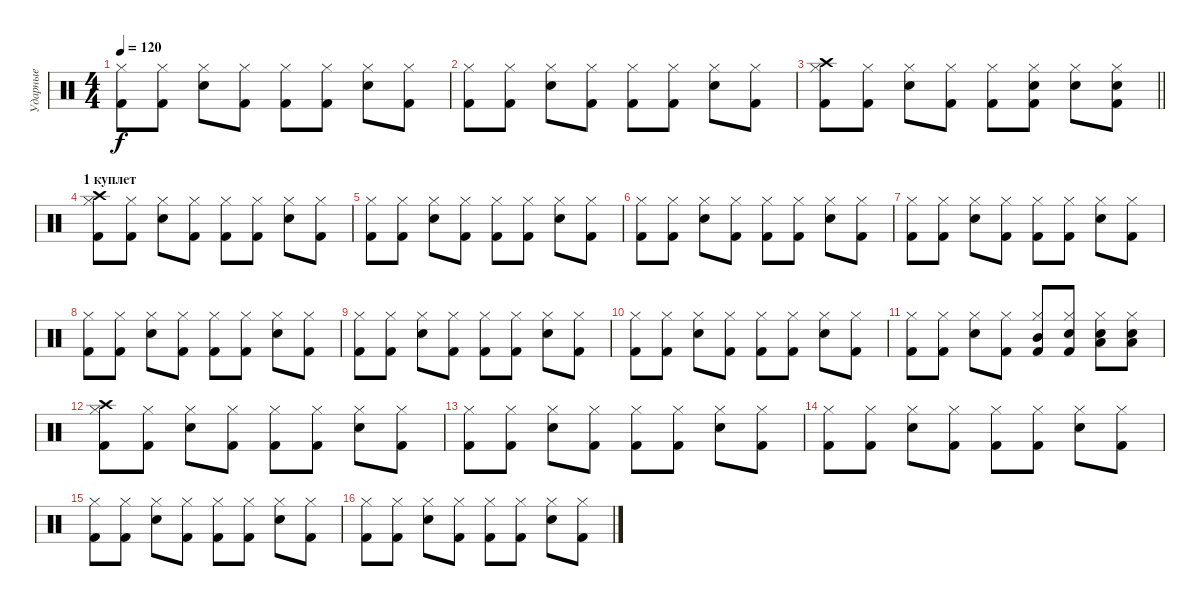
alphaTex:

\track ("Ударные" "Ударные") {instrument percussion}
\staff {score}
\articulation defaults
\ts (4 4)
\tempo 120
\clef neutral
\ks c
("Kick (hit) 2" "Hi-Hat (closed)").8{dy f} ("Kick (hit) 2" "Hi-Hat (closed)").8 ("Snare (hit) 2" "Hi-Hat (closed)").8 ("Kick (hit) 2" "Hi-Hat (closed)").8 ("Kick (hit) 2" "Hi-Hat (closed)").8 ("Kick (hit) 2" "Hi-Hat (closed)").8 ("Snare (hit) 2" "Hi-Hat (closed)").8 ("Kick (hit) 2" "Hi-Hat (closed)").8 |
("Kick (hit) 2" "Hi-Hat (closed)").8 ("Kick (hit) 2" "Hi-Hat (closed)").8 ("Snare (hit) 2" "Hi-Hat (closed)").8 ("Kick (hit) 2" "Hi-Hat (closed)").8 ("Kick (hit) 2" "Hi-Hat (closed)").8 ("Kick (hit) 2" "Hi-Hat (closed)").8 ("Snare (hit) 2" "Hi-Hat (closed)").8 ("Kick (hit) 2" "Hi-Hat (closed)").8 |
\barLineRight lightlight
("Kick (hit) 2" "Hi-Hat (closed)" "Crash high (hit)").8 ("Kick (hit) 2" "Hi-Hat (closed)").8 ("Snare (hit) 2" "Hi-Hat (closed)").8 ("Kick (hit) 2" "Hi-Hat (closed)").8 ("Kick (hit) 2" "Hi-Hat (closed)").8 ("Kick (hit) 2" "Hi-Hat (closed)" "Snare (hit) 2").8 ("Snare (hit) 2" "Hi-Hat (closed)").8 ("Kick (hit) 2" "Hi-Hat (closed)" "Snare (hit) 2").8 |
\section ("" "1 куплет")
("Kick (hit) 2" "Hi-Hat (closed)" "Crash high (hit)").8 ("Kick (hit) 2" "Hi-Hat (closed)").8 ("Snare (hit) 2" "Hi-Hat (closed)").8 ("Kick (hit) 2" "Hi-Hat (closed)").8 ("Kick (hit) 2" "Hi-Hat (closed)").8 ("Kick (hit) 2" "Hi-Hat (closed)").8 ("Snare (hit) 2" "Hi-Hat (closed)").8 ("Kick (hit) 2" "Hi-Hat (closed)").8 |
("Kick (hit) 2" "Hi-Hat (closed)").8 ("Kick (hit) 2" "Hi-Hat (closed)").8 ("Snare (hit) 2" "Hi-Hat (closed)").8 ("Kick (hit) 2" "Hi-Hat (closed)").8 ("Kick (hit) 2" "Hi-Hat (closed)").8 ("Kick (hit) 2" "Hi-Hat (closed)").8 ("Snare (hit) 2" "Hi-Hat (closed)").8 ("Kick (hit) 2" "Hi-Hat (closed)").8 |
("Kick (hit) 2" "Hi-Hat (closed)").8 ("Kick (hit) 2" "Hi-Hat (closed)").8 ("Snare (hit) 2" "Hi-Hat (closed)").8 ("Kick (hit) 2" "Hi-Hat (closed)").8 ("Kick (hit) 2" "Hi-Hat (closed)").8 ("Kick (hit) 2" "Hi-Hat (closed)").8 ("Snare (hit) 2" "Hi-Hat (closed)").8 ("Kick (hit) 2" "Hi-Hat (closed)").8 |
("Kick (hit) 2" "Hi-Hat (closed)").8 ("Kick (hit) 2" "Hi-Hat (closed)").8 ("Snare (hit) 2" "Hi-Hat (closed)").8 ("Kick (hit) 2" "Hi-Hat (closed)").8 ("Kick (hit) 2" "Hi-Hat (closed)").8 ("Kick (hit) 2" "Hi-Hat (closed)").8 ("Snare (hit) 2" "Hi-Hat (closed)").8 ("Kick (hit) 2" "Hi-Hat (closed)").8 |
("Kick (hit) 2" "Hi-Hat (closed)").8 ("Kick (hit) 2" "Hi-Hat (closed)").8 ("Snare (hit) 2" "Hi-Hat (closed)").8 ("Kick (hit) 2" "Hi-Hat (closed)").8 ("Kick (hit) 2" "Hi-Hat (closed)").8 ("Kick (hit) 2" "Hi-Hat (closed)").8 ("Snare (hit) 2" "Hi-Hat (closed)").8 ("Kick (hit) 2" "Hi-Hat (closed)").8 |
("Kick (hit) 2" "Hi-Hat (closed)").8 ("Kick (hit) 2" "Hi-Hat (closed)").8 ("Snare (hit) 2" "Hi-Hat (closed)").8 ("Kick (hit) 2" "Hi-Hat (closed)").8 ("Kick (hit) 2" "Hi-Hat (closed)").8 ("Kick (hit) 2" "Hi-Hat (closed)").8 ("Snare (hit) 2" "Hi-Hat (closed)").8 ("Kick (hit) 2" "Hi-Hat (closed)").8 |
("Kick (hit) 2" "Hi-Hat (closed)").8 ("Kick (hit) 2" "Hi-Hat (closed)").8 ("Snare (hit) 2" "Hi-Hat (closed)").8 ("Kick (hit) 2" "Hi-Hat (closed)").8 ("Kick (hit) 2" "Hi-Hat (closed)").8 ("Kick (hit) 2" "Hi-Hat (closed)").8 ("Snare (hit) 2" "Hi-Hat (closed)").8 ("Kick (hit) 2" "Hi-Hat (closed)").8 |
("Kick (hit) 2" "Hi-Hat (closed)").8 ("Kick (hit) 2" "Hi-Hat (closed)").8 ("Snare (hit) 2" "Hi-Hat (closed)").8 ("Kick (hit) 2" "Hi-Hat (closed)").8 ("Kick (hit) 2" "Hi-Hat (closed)" "Mid Tom (hit)").8 ("Kick (hit) 2" "Hi-Hat (closed)" "Snare (hit) 2").8 ("Snare (hit) 2" "Hi-Hat (closed)" "Low Tom (hit)").8 ("Snare (hit) 2" "Hi-Hat (closed)" "Low Floor Tom (hit)").8 |
("Kick (hit) 2" "Hi-Hat (closed)" "Crash high (hit)").8 ("Kick (hit) 2" "Hi-Hat (closed)").8 ("Snare (hit) 2" "Hi-Hat (closed)").8 ("Kick (hit) 2" "Hi-Hat (closed)").8 ("Kick (hit) 2" "Hi-Hat (closed)").8 ("Kick (hit) 2" "Hi-Hat (closed)").8 ("Snare (hit) 2" "Hi-Hat (closed)").8 ("Kick (hit) 2" "Hi-Hat (closed)").8 |
("Kick (hit) 2" "Hi-Hat (closed)").8 ("Kick (hit) 2" "Hi-Hat (closed)").8 ("Snare (hit) 2" "Hi-Hat (closed)").8 ("Kick (hit) 2" "Hi-Hat (closed)").8 ("Kick (hit) 2" "Hi-Hat (closed)").8 ("Kick (hit) 2" "Hi-Hat (closed)").8 ("Snare (hit) 2" "Hi-Hat (closed)").8 ("Kick (hit) 2" "Hi-Hat (closed)").8 |
("Kick (hit) 2" "Hi-Hat (closed)").8 ("Kick (hit) 2" "Hi-Hat (closed)").8 ("Snare (hit) 2" "Hi-Hat (closed)").8 ("Kick (hit) 2" "Hi-Hat (closed)").8 ("Kick (hit) 2" "Hi-Hat (closed)").8 ("Kick (hit) 2" "Hi-Hat (closed)").8 ("Snare (hit) 2" "Hi-Hat (closed)").8 ("Kick (hit) 2" "Hi-Hat (closed)").8 |
("Kick (hit) 2" "Hi-Hat (closed)").8 ("Kick (hit) 2" "Hi-Hat (closed)").8 ("Snare (hit) 2" "Hi-Hat (closed)").8 ("Kick (hit) 2" "Hi-Hat (closed)").8 ("Kick (hit) 2" "Hi-Hat (closed)").8 ("Kick (hit) 2" "Hi-Hat (closed)").8 ("Snare (hit) 2" "Hi-Hat (closed)").8 ("Kick (hit) 2" "Hi-Hat (closed)").8 |
("Kick (hit) 2" "Hi-Hat (closed)").8 ("Kick (hit) 2" "Hi-Hat (closed)").8 ("Snare (hit) 2" "Hi-Hat (closed)").8 ("Kick (hit) 2" "Hi-Hat (closed)").8 ("Kick (hit) 2" "Hi-Hat (closed)").8 ("Kick (hit) 2" "Hi-Hat (closed)").8 ("Snare (hit) 2" "Hi-Hat (closed)").8 ("Kick (hit) 2" "Hi-Hat (closed)").8
